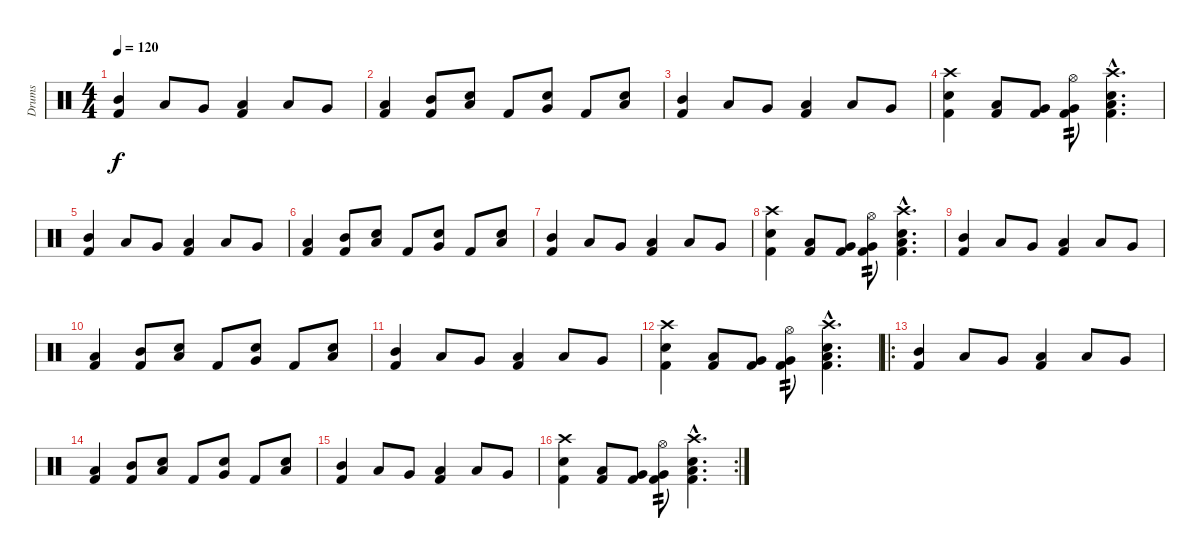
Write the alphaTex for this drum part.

\track ("Drums" "Drums") {instrument percussion}
\staff {score}
\articulation defaults
\ts (4 4)
\tempo 120
\clef neutral
\ks c
("Mid Tom (hit)" "Kick (hit) 2").4{dy f} "Low Tom (hit)".8 "Very Low Tom (hit)".8 ("Low Floor Tom (hit)" "Kick (hit) 2").4 "Low Tom (hit)".8 "Very Low Tom (hit)".8 |
("Low Floor Tom (hit)" "Kick (hit) 2").4 ("Mid Tom (hit)" "Kick (hit) 2").8 ("Low Tom (hit)" "Snare (hit) 2").8 "Kick (hit) 2".8 ("Very Low Tom (hit)" "Snare (hit) 2").8 "Kick (hit) 2".8 ("Low Floor Tom (hit)" "Snare (hit) 2").8 |
("Mid Tom (hit)" "Kick (hit) 2").4 "Low Tom (hit)".8 "Very Low Tom (hit)".8 ("Low Floor Tom (hit)" "Kick (hit) 2").4 "Low Tom (hit)".8 "Very Low Tom (hit)".8 |
("Crash high (hit)" "Snare (hit) 2" "Kick (hit) 2").4 ("Low Tom (hit)" "Kick (hit) 2").8 ("Very Low Tom (hit)" "Kick (hit) 2").8 ("Hi-Hat (open)" "Very Low Tom (hit)" "Kick (hit) 2").8{tp 2} ("Crash high (hit)"{hac} "Snare (hit) 2"{hac} "Low Floor Tom (hit)"{hac} "Kick (hit) 2"{hac}).4{d} |
("Mid Tom (hit)" "Kick (hit) 2").4 "Low Tom (hit)".8 "Very Low Tom (hit)".8 ("Low Floor Tom (hit)" "Kick (hit) 2").4 "Low Tom (hit)".8 "Very Low Tom (hit)".8 |
("Low Floor Tom (hit)" "Kick (hit) 2").4 ("Mid Tom (hit)" "Kick (hit) 2").8 ("Low Tom (hit)" "Snare (hit) 2").8 "Kick (hit) 2".8 ("Very Low Tom (hit)" "Snare (hit) 2").8 "Kick (hit) 2".8 ("Low Floor Tom (hit)" "Snare (hit) 2").8 |
("Mid Tom (hit)" "Kick (hit) 2").4 "Low Tom (hit)".8 "Very Low Tom (hit)".8 ("Low Floor Tom (hit)" "Kick (hit) 2").4 "Low Tom (hit)".8 "Very Low Tom (hit)".8 |
("Crash high (hit)" "Snare (hit) 2" "Kick (hit) 2").4 ("Low Tom (hit)" "Kick (hit) 2").8 ("Very Low Tom (hit)" "Kick (hit) 2").8 ("Hi-Hat (open)" "Very Low Tom (hit)" "Kick (hit) 2").8{tp 2} ("Crash high (hit)"{hac} "Snare (hit) 2"{hac} "Low Floor Tom (hit)"{hac} "Kick (hit) 2"{hac}).4{d} |
("Mid Tom (hit)" "Kick (hit) 2").4 "Low Tom (hit)".8 "Very Low Tom (hit)".8 ("Low Floor Tom (hit)" "Kick (hit) 2").4 "Low Tom (hit)".8 "Very Low Tom (hit)".8 |
("Low Floor Tom (hit)" "Kick (hit) 2").4 ("Mid Tom (hit)" "Kick (hit) 2").8 ("Low Tom (hit)" "Snare (hit) 2").8 "Kick (hit) 2".8 ("Very Low Tom (hit)" "Snare (hit) 2").8 "Kick (hit) 2".8 ("Low Floor Tom (hit)" "Snare (hit) 2").8 |
("Mid Tom (hit)" "Kick (hit) 2").4 "Low Tom (hit)".8 "Very Low Tom (hit)".8 ("Low Floor Tom (hit)" "Kick (hit) 2").4 "Low Tom (hit)".8 "Very Low Tom (hit)".8 |
("Crash high (hit)" "Snare (hit) 2" "Kick (hit) 2").4 ("Low Tom (hit)" "Kick (hit) 2").8 ("Very Low Tom (hit)" "Kick (hit) 2").8 ("Hi-Hat (open)" "Very Low Tom (hit)" "Kick (hit) 2").8{tp 2} ("Crash high (hit)"{hac} "Snare (hit) 2"{hac} "Low Floor Tom (hit)"{hac} "Kick (hit) 2"{hac}).4{d} |
\ro
("Mid Tom (hit)" "Kick (hit) 2").4 "Low Tom (hit)".8 "Very Low Tom (hit)".8 ("Low Floor Tom (hit)" "Kick (hit) 2").4 "Low Tom (hit)".8 "Very Low Tom (hit)".8 |
("Low Floor Tom (hit)" "Kick (hit) 2").4 ("Mid Tom (hit)" "Kick (hit) 2").8 ("Low Tom (hit)" "Snare (hit) 2").8 "Kick (hit) 2".8 ("Very Low Tom (hit)" "Snare (hit) 2").8 "Kick (hit) 2".8 ("Low Floor Tom (hit)" "Snare (hit) 2").8 |
("Mid Tom (hit)" "Kick (hit) 2").4 "Low Tom (hit)".8 "Very Low Tom (hit)".8 ("Low Floor Tom (hit)" "Kick (hit) 2").4 "Low Tom (hit)".8 "Very Low Tom (hit)".8 |
\rc 2
("Crash high (hit)" "Snare (hit) 2" "Kick (hit) 2").4 ("Low Tom (hit)" "Kick (hit) 2").8 ("Very Low Tom (hit)" "Kick (hit) 2").8 ("Hi-Hat (open)" "Very Low Tom (hit)" "Kick (hit) 2").8{tp 2} ("Crash high (hit)"{hac} "Snare (hit) 2"{hac} "Low Floor Tom (hit)"{hac} "Kick (hit) 2"{hac}).4{d}
